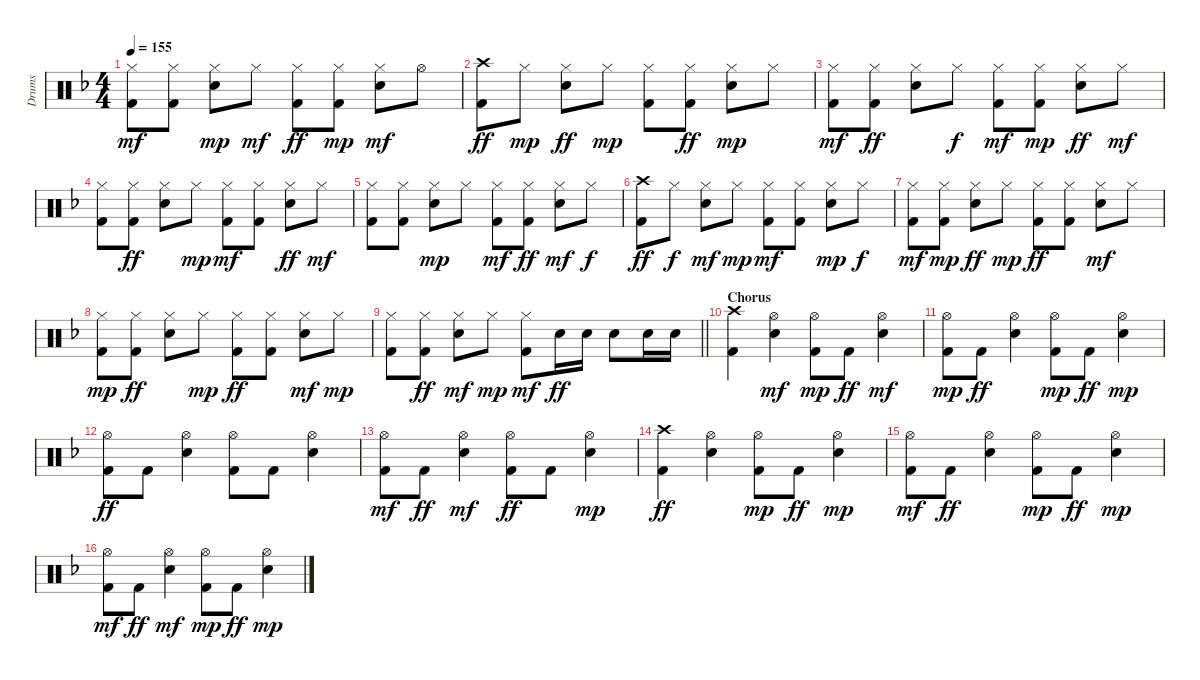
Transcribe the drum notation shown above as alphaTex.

\track ("Drums" "Drums") {instrument percussion}
\staff {score}
\articulation defaults
\ts (4 4)
\tempo 155
\clef neutral
\ks f
("Kick (hit) 2" "Hi-Hat (closed)").8{dy mf} ("Kick (hit) 2" "Hi-Hat (closed)").8 ("Snare (hit) 2" "Hi-Hat (closed)").8{dy mp} "Hi-Hat (closed)".8{dy mf} ("Kick (hit) 2" "Hi-Hat (closed)").8{dy ff} ("Kick (hit) 2" "Hi-Hat (closed)").8{dy mp} ("Snare (hit) 2" "Hi-Hat (closed)").8{dy mf} "Hi-Hat (open)".8 |
("Kick (hit) 2" "Crash high (hit)").8{dy ff} "Hi-Hat (closed)".8{dy mp} ("Snare (hit) 2" "Hi-Hat (closed)").8{dy ff} "Hi-Hat (closed)".8{dy mp} ("Kick (hit) 2" "Hi-Hat (closed)").8 ("Kick (hit) 2" "Hi-Hat (closed)").8{dy ff} ("Snare (hit) 2" "Hi-Hat (closed)").8{dy mp} "Hi-Hat (closed)".8 |
("Kick (hit) 2" "Hi-Hat (closed)").8{dy mf} ("Kick (hit) 2" "Hi-Hat (closed)").8{dy ff} ("Snare (hit) 2" "Hi-Hat (closed)").8 "Hi-Hat (closed)".8{dy f} ("Kick (hit) 2" "Hi-Hat (closed)").8{dy mf} ("Kick (hit) 2" "Hi-Hat (closed)").8{dy mp} ("Snare (hit) 2" "Hi-Hat (closed)").8{dy ff} "Hi-Hat (closed)".8{dy mf} |
("Kick (hit) 2" "Hi-Hat (closed)").8 ("Kick (hit) 2" "Hi-Hat (closed)").8{dy ff} ("Snare (hit) 2" "Hi-Hat (closed)").8 "Hi-Hat (closed)".8{dy mp} ("Kick (hit) 2" "Hi-Hat (closed)").8{dy mf} ("Kick (hit) 2" "Hi-Hat (closed)").8 ("Snare (hit) 2" "Hi-Hat (closed)").8{dy ff} "Hi-Hat (closed)".8{dy mf} |
("Kick (hit) 2" "Hi-Hat (closed)").8 ("Kick (hit) 2" "Hi-Hat (closed)").8 ("Snare (hit) 2" "Hi-Hat (closed)").8{dy mp} "Hi-Hat (closed)".8 ("Kick (hit) 2" "Hi-Hat (closed)").8{dy mf} ("Kick (hit) 2" "Hi-Hat (closed)").8{dy ff} ("Snare (hit) 2" "Hi-Hat (closed)").8{dy mf} "Hi-Hat (closed)".8{dy f} |
("Kick (hit) 2" "Crash high (hit)").8{dy ff} "Hi-Hat (closed)".8{dy f} ("Snare (hit) 2" "Hi-Hat (closed)").8{dy mf} "Hi-Hat (closed)".8{dy mp} ("Kick (hit) 2" "Hi-Hat (closed)").8{dy mf} ("Kick (hit) 2" "Hi-Hat (closed)").8 ("Snare (hit) 2" "Hi-Hat (closed)").8{dy mp} "Hi-Hat (closed)".8{dy f} |
("Kick (hit) 2" "Hi-Hat (closed)").8{dy mf} ("Kick (hit) 2" "Hi-Hat (closed)").8{dy mp} ("Snare (hit) 2" "Hi-Hat (closed)").8{dy ff} "Hi-Hat (closed)".8{dy mp} ("Kick (hit) 2" "Hi-Hat (closed)").8{dy ff} ("Kick (hit) 2" "Hi-Hat (closed)").8 ("Snare (hit) 2" "Hi-Hat (closed)").8{dy mf} "Hi-Hat (closed)".8 |
("Kick (hit) 2" "Hi-Hat (closed)").8{dy mp} ("Kick (hit) 2" "Hi-Hat (closed)").8{dy ff} ("Snare (hit) 2" "Hi-Hat (closed)").8 "Hi-Hat (closed)".8{dy mp} ("Kick (hit) 2" "Hi-Hat (closed)").8{dy ff} ("Kick (hit) 2" "Hi-Hat (closed)").8 ("Snare (hit) 2" "Hi-Hat (closed)").8{dy mf} "Hi-Hat (closed)".8{dy mp} |
\barLineRight lightlight
("Kick (hit) 2" "Hi-Hat (closed)").8 ("Kick (hit) 2" "Hi-Hat (closed)").8{dy ff} ("Snare (hit) 2" "Hi-Hat (closed)").8{dy mf} "Hi-Hat (closed)".8{dy mp} ("Kick (hit) 2" "Hi-Hat (closed)").8{dy mf} "Snare (hit) 2".16{dy ff} "Snare (hit) 2".16 "Snare (hit) 2".8 "Snare (hit) 2".16 "Snare (hit) 2".16 |
\section ("" "Chorus")
("Kick (hit) 2" "Crash high (hit)").4 ("Snare (hit) 2" "Hi-Hat (open)").4{dy mf} ("Kick (hit) 2" "Hi-Hat (open)").8{dy mp} "Kick (hit) 2".8{dy ff} ("Snare (hit) 2" "Hi-Hat (open)").4{dy mf} |
("Kick (hit) 2" "Hi-Hat (open)").8{dy mp} "Kick (hit) 2".8{dy ff} ("Snare (hit) 2" "Hi-Hat (open)").4 ("Kick (hit) 2" "Hi-Hat (open)").8{dy mp} "Kick (hit) 2".8{dy ff} ("Snare (hit) 2" "Hi-Hat (open)").4{dy mp} |
("Kick (hit) 2" "Hi-Hat (open)").8{dy ff} "Kick (hit) 2".8 ("Snare (hit) 2" "Hi-Hat (open)").4 ("Kick (hit) 2" "Hi-Hat (open)").8 "Kick (hit) 2".8 ("Snare (hit) 2" "Hi-Hat (open)").4 |
("Kick (hit) 2" "Hi-Hat (open)").8{dy mf} "Kick (hit) 2".8{dy ff} ("Snare (hit) 2" "Hi-Hat (open)").4{dy mf} ("Kick (hit) 2" "Hi-Hat (open)").8{dy ff} "Kick (hit) 2".8 ("Snare (hit) 2" "Hi-Hat (open)").4{dy mp} |
("Kick (hit) 2" "Crash high (hit)").4{dy ff} ("Snare (hit) 2" "Hi-Hat (open)").4 ("Kick (hit) 2" "Hi-Hat (open)").8{dy mp} "Kick (hit) 2".8{dy ff} ("Snare (hit) 2" "Hi-Hat (open)").4{dy mp} |
("Kick (hit) 2" "Hi-Hat (open)").8{dy mf} "Kick (hit) 2".8{dy ff} ("Snare (hit) 2" "Hi-Hat (open)").4 ("Kick (hit) 2" "Hi-Hat (open)").8{dy mp} "Kick (hit) 2".8{dy ff} ("Snare (hit) 2" "Hi-Hat (open)").4{dy mp} |
("Kick (hit) 2" "Hi-Hat (open)").8{dy mf} "Kick (hit) 2".8{dy ff} ("Snare (hit) 2" "Hi-Hat (open)").4{dy mf} ("Kick (hit) 2" "Hi-Hat (open)").8{dy mp} "Kick (hit) 2".8{dy ff} ("Snare (hit) 2" "Hi-Hat (open)").4{dy mp}
